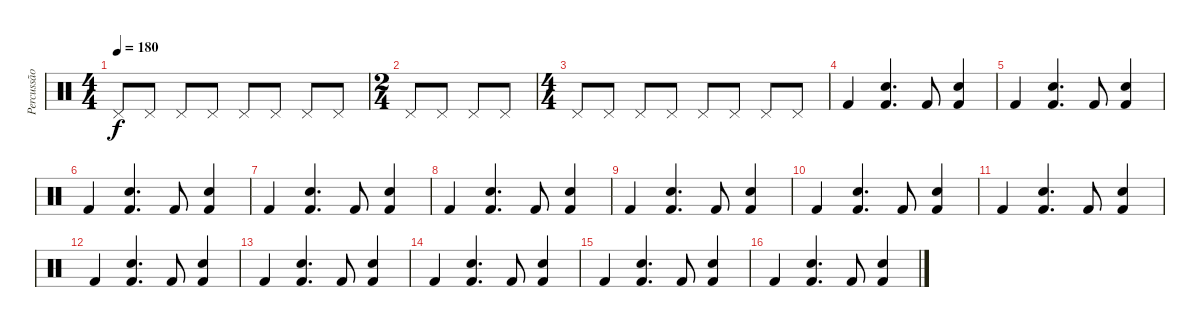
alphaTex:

\track ("Percussão" "Percussão") {instrument percussion}
\staff {score}
\articulation defaults
\ts (4 4)
\tempo 180
\clef neutral
\ks c "Pedal Hi-Hat (hit)".8{dy f} "Pedal Hi-Hat (hit)".8 "Pedal Hi-Hat (hit)".8 "Pedal Hi-Hat (hit)".8 "Pedal Hi-Hat (hit)".8 "Pedal Hi-Hat (hit)".8 "Pedal Hi-Hat (hit)".8 "Pedal Hi-Hat (hit)".8
|
\ts (2 4)
"Pedal Hi-Hat (hit)".8 "Pedal Hi-Hat (hit)".8 "Pedal Hi-Hat (hit)".8 "Pedal Hi-Hat (hit)".8 |
\ts (4 4)
"Pedal Hi-Hat (hit)".8 "Pedal Hi-Hat (hit)".8 "Pedal Hi-Hat (hit)".8 "Pedal Hi-Hat (hit)".8 "Pedal Hi-Hat (hit)".8 "Pedal Hi-Hat (hit)".8 "Pedal Hi-Hat (hit)".8 "Pedal Hi-Hat (hit)".8 |
"Kick (hit) 2".4 ("Kick (hit) 2" "Snare (hit) 2").4{d} "Kick (hit) 2".8 ("Kick (hit) 2" "Snare (hit) 2").4 |
"Kick (hit) 2".4 ("Kick (hit) 2" "Snare (hit) 2").4{d} "Kick (hit) 2".8 ("Kick (hit) 2" "Snare (hit) 2").4 |
"Kick (hit) 2".4 ("Kick (hit) 2" "Snare (hit) 2").4{d} "Kick (hit) 2".8 ("Kick (hit) 2" "Snare (hit) 2").4 |
"Kick (hit) 2".4 ("Kick (hit) 2" "Snare (hit) 2").4{d} "Kick (hit) 2".8 ("Kick (hit) 2" "Snare (hit) 2").4 |
"Kick (hit) 2".4 ("Kick (hit) 2" "Snare (hit) 2").4{d} "Kick (hit) 2".8 ("Kick (hit) 2" "Snare (hit) 2").4 |
"Kick (hit) 2".4 ("Kick (hit) 2" "Snare (hit) 2").4{d} "Kick (hit) 2".8 ("Kick (hit) 2" "Snare (hit) 2").4 |
"Kick (hit) 2".4 ("Kick (hit) 2" "Snare (hit) 2").4{d} "Kick (hit) 2".8 ("Kick (hit) 2" "Snare (hit) 2").4 |
"Kick (hit) 2".4 ("Kick (hit) 2" "Snare (hit) 2").4{d} "Kick (hit) 2".8 ("Kick (hit) 2" "Snare (hit) 2").4 |
"Kick (hit) 2".4 ("Kick (hit) 2" "Snare (hit) 2").4{d} "Kick (hit) 2".8 ("Kick (hit) 2" "Snare (hit) 2").4 |
"Kick (hit) 2".4 ("Kick (hit) 2" "Snare (hit) 2").4{d} "Kick (hit) 2".8 ("Kick (hit) 2" "Snare (hit) 2").4 |
"Kick (hit) 2".4 ("Kick (hit) 2" "Snare (hit) 2").4{d} "Kick (hit) 2".8 ("Kick (hit) 2" "Snare (hit) 2").4 |
"Kick (hit) 2".4 ("Kick (hit) 2" "Snare (hit) 2").4{d} "Kick (hit) 2".8 ("Kick (hit) 2" "Snare (hit) 2").4 |
"Kick (hit) 2".4 ("Kick (hit) 2" "Snare (hit) 2").4{d} "Kick (hit) 2".8 ("Kick (hit) 2" "Snare (hit) 2").4
